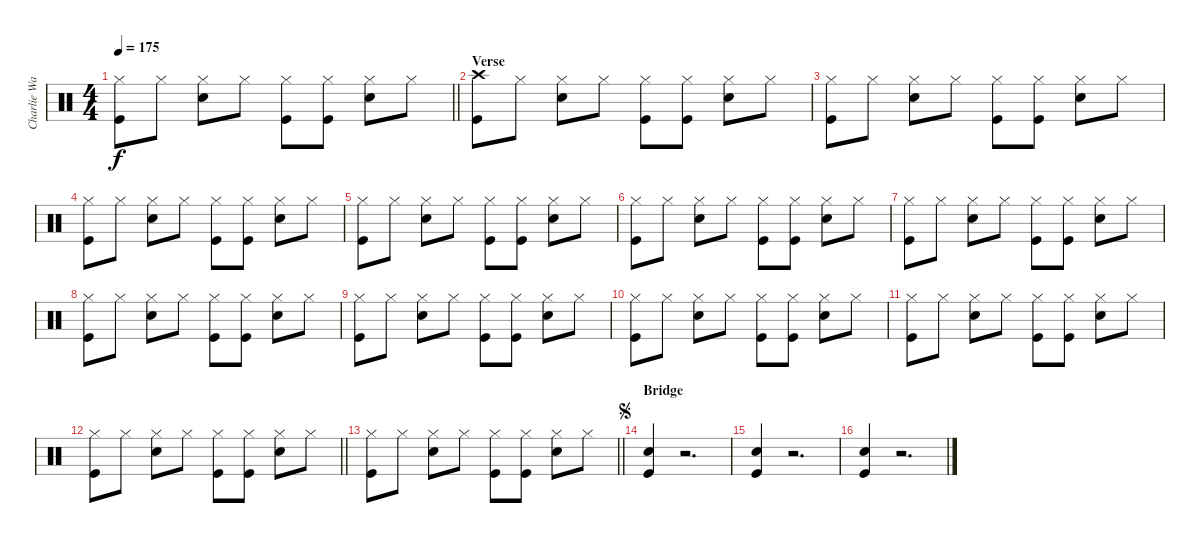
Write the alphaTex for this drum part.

\track ("Charlie Watts" "Charlie Wa") {instrument percussion}
\staff {score}
\articulation defaults
\ts (4 4)
\tempo 175
\clef neutral
\barLineRight lightlight
\ks c
("Hi-Hat (closed)" "Kick (hit)").8{dy f} "Hi-Hat (closed)".8 ("Hi-Hat (closed)" "Snare (hit) 2").8 "Hi-Hat (closed)".8 ("Hi-Hat (closed)" "Kick (hit)").8 ("Hi-Hat (closed)" "Kick (hit)").8 ("Hi-Hat (closed)" "Snare (hit) 2").8 "Hi-Hat (closed)".8 |
\section ("" "Verse")
("Crash high (hit)" "Kick (hit)").8 "Hi-Hat (closed)".8 ("Hi-Hat (closed)" "Snare (hit) 2").8 "Hi-Hat (closed)".8 ("Hi-Hat (closed)" "Kick (hit)").8 ("Hi-Hat (closed)" "Kick (hit)").8 ("Hi-Hat (closed)" "Snare (hit) 2").8 "Hi-Hat (closed)".8 |
("Hi-Hat (closed)" "Kick (hit)").8 "Hi-Hat (closed)".8 ("Hi-Hat (closed)" "Snare (hit) 2").8 "Hi-Hat (closed)".8 ("Hi-Hat (closed)" "Kick (hit)").8 ("Hi-Hat (closed)" "Kick (hit)").8 ("Hi-Hat (closed)" "Snare (hit) 2").8 "Hi-Hat (closed)".8 |
("Hi-Hat (closed)" "Kick (hit)").8 "Hi-Hat (closed)".8 ("Hi-Hat (closed)" "Snare (hit) 2").8 "Hi-Hat (closed)".8 ("Hi-Hat (closed)" "Kick (hit)").8 ("Hi-Hat (closed)" "Kick (hit)").8 ("Hi-Hat (closed)" "Snare (hit) 2").8 "Hi-Hat (closed)".8 |
("Hi-Hat (closed)" "Kick (hit)").8 "Hi-Hat (closed)".8 ("Hi-Hat (closed)" "Snare (hit) 2").8 "Hi-Hat (closed)".8 ("Hi-Hat (closed)" "Kick (hit)").8 ("Hi-Hat (closed)" "Kick (hit)").8 ("Hi-Hat (closed)" "Snare (hit) 2").8 "Hi-Hat (closed)".8 |
("Hi-Hat (closed)" "Kick (hit)").8 "Hi-Hat (closed)".8 ("Hi-Hat (closed)" "Snare (hit) 2").8 "Hi-Hat (closed)".8 ("Hi-Hat (closed)" "Kick (hit)").8 ("Hi-Hat (closed)" "Kick (hit)").8 ("Hi-Hat (closed)" "Snare (hit) 2").8 "Hi-Hat (closed)".8 |
("Hi-Hat (closed)" "Kick (hit)").8 "Hi-Hat (closed)".8 ("Hi-Hat (closed)" "Snare (hit) 2").8 "Hi-Hat (closed)".8 ("Hi-Hat (closed)" "Kick (hit)").8 ("Hi-Hat (closed)" "Kick (hit)").8 ("Hi-Hat (closed)" "Snare (hit) 2").8 "Hi-Hat (closed)".8 |
("Hi-Hat (closed)" "Kick (hit)").8 "Hi-Hat (closed)".8 ("Hi-Hat (closed)" "Snare (hit) 2").8 "Hi-Hat (closed)".8 ("Hi-Hat (closed)" "Kick (hit)").8 ("Hi-Hat (closed)" "Kick (hit)").8 ("Hi-Hat (closed)" "Snare (hit) 2").8 "Hi-Hat (closed)".8 |
("Hi-Hat (closed)" "Kick (hit)").8 "Hi-Hat (closed)".8 ("Hi-Hat (closed)" "Snare (hit) 2").8 "Hi-Hat (closed)".8 ("Hi-Hat (closed)" "Kick (hit)").8 ("Hi-Hat (closed)" "Kick (hit)").8 ("Hi-Hat (closed)" "Snare (hit) 2").8 "Hi-Hat (closed)".8 |
("Hi-Hat (closed)" "Kick (hit)").8 "Hi-Hat (closed)".8 ("Hi-Hat (closed)" "Snare (hit) 2").8 "Hi-Hat (closed)".8 ("Hi-Hat (closed)" "Kick (hit)").8 ("Hi-Hat (closed)" "Kick (hit)").8 ("Hi-Hat (closed)" "Snare (hit) 2").8 "Hi-Hat (closed)".8 |
("Hi-Hat (closed)" "Kick (hit)").8 "Hi-Hat (closed)".8 ("Hi-Hat (closed)" "Snare (hit) 2").8 "Hi-Hat (closed)".8 ("Hi-Hat (closed)" "Kick (hit)").8 ("Hi-Hat (closed)" "Kick (hit)").8 ("Hi-Hat (closed)" "Snare (hit) 2").8 "Hi-Hat (closed)".8 |
\barLineRight lightlight
("Hi-Hat (closed)" "Kick (hit)").8 "Hi-Hat (closed)".8 ("Hi-Hat (closed)" "Snare (hit) 2").8 "Hi-Hat (closed)".8 ("Hi-Hat (closed)" "Kick (hit)").8 ("Hi-Hat (closed)" "Kick (hit)").8 ("Hi-Hat (closed)" "Snare (hit) 2").8 "Hi-Hat (closed)".8 |
\barLineRight lightlight
("Hi-Hat (closed)" "Kick (hit)").8 "Hi-Hat (closed)".8 ("Hi-Hat (closed)" "Snare (hit) 2").8 "Hi-Hat (closed)".8 ("Hi-Hat (closed)" "Kick (hit)").8 ("Hi-Hat (closed)" "Kick (hit)").8 ("Hi-Hat (closed)" "Snare (hit) 2").8 "Hi-Hat (closed)".8 |
\section ("" "Bridge")
\jump segno
("Snare (hit) 2" "Kick (hit)").4 r.2{d} |
("Snare (hit) 2" "Kick (hit)").4 r.2{d} |
("Snare (hit) 2" "Kick (hit)").4 r.2{d}
